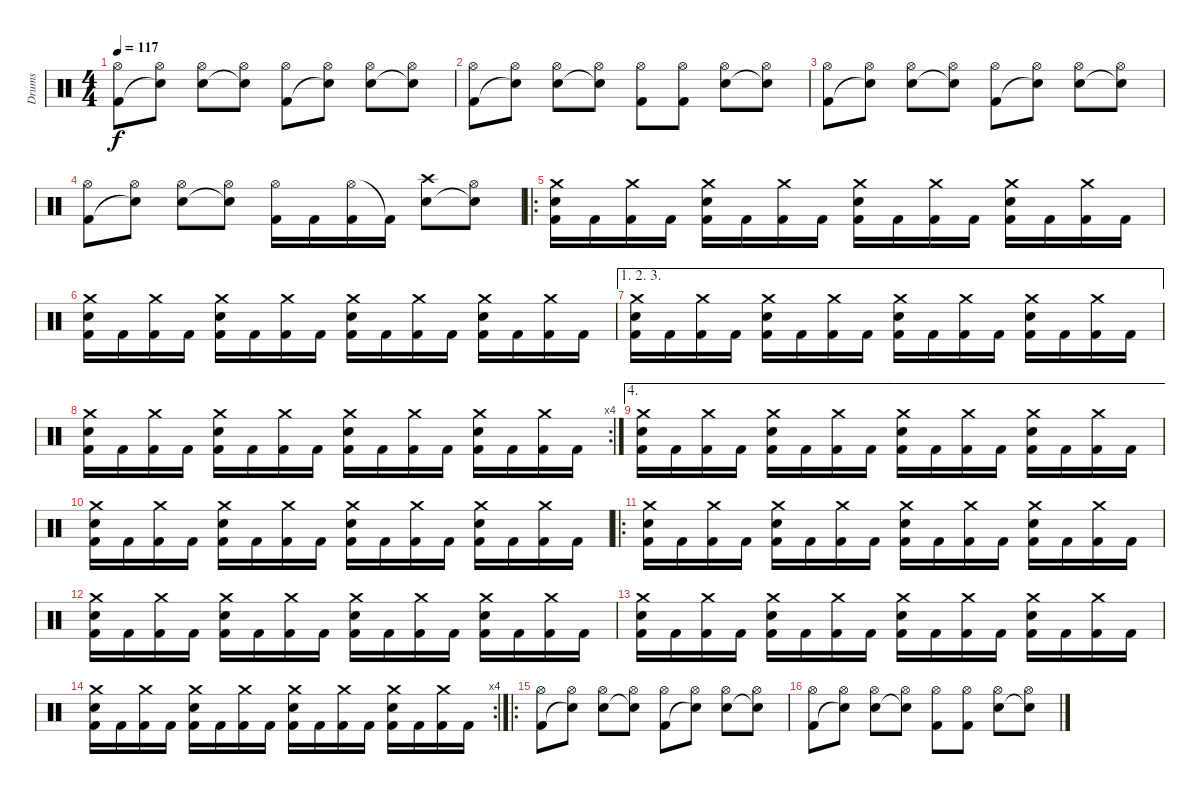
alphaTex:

\track ("Drums" "Drums") {instrument percussion}
\staff {score}
\articulation defaults
\ts (4 4)
\tempo 117
\clef neutral
\ks c
("Hi-Hat (open)" "Kick (hit) 2").8{dy f} ("Hi-Hat (open)" "Snare (hit)"{t}).8 ("Hi-Hat (open)" "Electric Snare (hit)").8 ("Hi-Hat (open)" "Snare (hit)"{t}).8 ("Hi-Hat (open)" "Kick (hit) 2").8 ("Hi-Hat (open)" "Snare (hit)"{t}).8 ("Hi-Hat (open)" "Electric Snare (hit)").8 ("Hi-Hat (open)" "Snare (hit)"{t}).8 |
("Hi-Hat (open)" "Kick (hit) 2").8 ("Hi-Hat (open)" "Snare (hit)"{t}).8 ("Hi-Hat (open)" "Electric Snare (hit)").8 ("Hi-Hat (open)" "Snare (hit)"{t}).8 ("Hi-Hat (open)" "Kick (hit) 2").8 ("Hi-Hat (open)" "Kick (hit) 2").8 ("Hi-Hat (open)" "Electric Snare (hit)").8 ("Hi-Hat (open)" "Snare (hit)"{t}).8 |
("Hi-Hat (open)" "Kick (hit) 2").8 ("Hi-Hat (open)" "Snare (hit)"{t}).8 ("Hi-Hat (open)" "Electric Snare (hit)").8 ("Hi-Hat (open)" "Snare (hit)"{t}).8 ("Hi-Hat (open)" "Kick (hit) 2").8 ("Hi-Hat (open)" "Snare (hit)"{t}).8 ("Hi-Hat (open)" "Electric Snare (hit)").8 ("Hi-Hat (open)" "Snare (hit)"{t}).8 |
("Hi-Hat (open)" "Kick (hit) 2").8 ("Hi-Hat (open)" "Snare (hit)"{t}).8 ("Hi-Hat (open)" "Electric Snare (hit)").8 ("Hi-Hat (open)" "Snare (hit)"{t}).8 ("Hi-Hat (open)" "Kick (hit) 2").16 "Kick (hit) 2".16 ("Hi-Hat (open)" "Kick (hit) 2").16 "Kick (hit) 2"{t}.16 ("Crash high (hit)" "Electric Snare (hit)").8 ("Hi-Hat (open)" "Snare (hit)"{t}).8 |
\ro
("Crash medium (hit)" "Electric Snare (hit)" "Kick (hit) 2").16 "Kick (hit) 2".16 ("Crash medium (hit)" "Kick (hit) 2").16 "Kick (hit) 2".16 ("Crash medium (hit)" "Electric Snare (hit)" "Kick (hit) 2").16 "Kick (hit) 2".16 ("Crash medium (hit)" "Kick (hit) 2").16 "Kick (hit) 2".16 ("Crash medium (hit)" "Electric Snare (hit)" "Kick (hit) 2").16 "Kick (hit) 2".16 ("Crash medium (hit)" "Kick (hit) 2").16 "Kick (hit) 2".16 ("Crash medium (hit)" "Electric Snare (hit)" "Kick (hit) 2").16 "Kick (hit) 2".16 ("Crash medium (hit)" "Kick (hit) 2").16 "Kick (hit) 2".16 |
("Crash medium (hit)" "Electric Snare (hit)" "Kick (hit) 2").16 "Kick (hit) 2".16 ("Crash medium (hit)" "Kick (hit) 2").16 "Kick (hit) 2".16 ("Crash medium (hit)" "Electric Snare (hit)" "Kick (hit) 2").16 "Kick (hit) 2".16 ("Crash medium (hit)" "Kick (hit) 2").16 "Kick (hit) 2".16 ("Crash medium (hit)" "Electric Snare (hit)" "Kick (hit) 2").16 "Kick (hit) 2".16 ("Crash medium (hit)" "Kick (hit) 2").16 "Kick (hit) 2".16 ("Crash medium (hit)" "Electric Snare (hit)" "Kick (hit) 2").16 "Kick (hit) 2".16 ("Crash medium (hit)" "Kick (hit) 2").16 "Kick (hit) 2".16 |
\ae (1 2 3)
("Crash medium (hit)" "Electric Snare (hit)" "Kick (hit) 2").16 "Kick (hit) 2".16 ("Crash medium (hit)" "Kick (hit) 2").16 "Kick (hit) 2".16 ("Crash medium (hit)" "Electric Snare (hit)" "Kick (hit) 2").16 "Kick (hit) 2".16 ("Crash medium (hit)" "Kick (hit) 2").16 "Kick (hit) 2".16 ("Crash medium (hit)" "Electric Snare (hit)" "Kick (hit) 2").16 "Kick (hit) 2".16 ("Crash medium (hit)" "Kick (hit) 2").16 "Kick (hit) 2".16 ("Crash medium (hit)" "Electric Snare (hit)" "Kick (hit) 2").16 "Kick (hit) 2".16 ("Crash medium (hit)" "Kick (hit) 2").16 "Kick (hit) 2".16 |
\rc 4
("Crash medium (hit)" "Electric Snare (hit)" "Kick (hit) 2").16 "Kick (hit) 2".16 ("Crash medium (hit)" "Kick (hit) 2").16 "Kick (hit) 2".16 ("Crash medium (hit)" "Electric Snare (hit)" "Kick (hit) 2").16 "Kick (hit) 2".16 ("Crash medium (hit)" "Kick (hit) 2").16 "Kick (hit) 2".16 ("Crash medium (hit)" "Electric Snare (hit)" "Kick (hit) 2").16 "Kick (hit) 2".16 ("Crash medium (hit)" "Kick (hit) 2").16 "Kick (hit) 2".16 ("Crash medium (hit)" "Electric Snare (hit)" "Kick (hit) 2").16 "Kick (hit) 2".16 ("Crash medium (hit)" "Kick (hit) 2").16 "Kick (hit) 2".16 |
\ae 4
("Crash medium (hit)" "Electric Snare (hit)" "Kick (hit) 2").16 "Kick (hit) 2".16 ("Crash medium (hit)" "Kick (hit) 2").16 "Kick (hit) 2".16 ("Crash medium (hit)" "Electric Snare (hit)" "Kick (hit) 2").16 "Kick (hit) 2".16 ("Crash medium (hit)" "Kick (hit) 2").16 "Kick (hit) 2".16 ("Crash medium (hit)" "Electric Snare (hit)" "Kick (hit) 2").16 "Kick (hit) 2".16 ("Crash medium (hit)" "Kick (hit) 2").16 "Kick (hit) 2".16 ("Crash medium (hit)" "Electric Snare (hit)" "Kick (hit) 2").16 "Kick (hit) 2".16 ("Crash medium (hit)" "Kick (hit) 2").16 "Kick (hit) 2".16 |
("Crash medium (hit)" "Electric Snare (hit)" "Kick (hit) 2").16 "Kick (hit) 2".16 ("Crash medium (hit)" "Kick (hit) 2").16 "Kick (hit) 2".16 ("Crash medium (hit)" "Electric Snare (hit)" "Kick (hit) 2").16 "Kick (hit) 2".16 ("Crash medium (hit)" "Kick (hit) 2").16 "Kick (hit) 2".16 ("Crash medium (hit)" "Electric Snare (hit)" "Kick (hit) 2").16 "Kick (hit) 2".16 ("Crash medium (hit)" "Kick (hit) 2").16 "Kick (hit) 2".16 ("Crash medium (hit)" "Electric Snare (hit)" "Kick (hit) 2").16 "Kick (hit) 2".16 ("Crash medium (hit)" "Kick (hit) 2").16 "Kick (hit) 2".16 |
\ro
("Crash medium (hit)" "Electric Snare (hit)" "Kick (hit) 2").16 "Kick (hit) 2".16 ("Crash medium (hit)" "Kick (hit) 2").16 "Kick (hit) 2".16 ("Crash medium (hit)" "Electric Snare (hit)" "Kick (hit) 2").16 "Kick (hit) 2".16 ("Crash medium (hit)" "Kick (hit) 2").16 "Kick (hit) 2".16 ("Crash medium (hit)" "Electric Snare (hit)" "Kick (hit) 2").16 "Kick (hit) 2".16 ("Crash medium (hit)" "Kick (hit) 2").16 "Kick (hit) 2".16 ("Crash medium (hit)" "Electric Snare (hit)" "Kick (hit) 2").16 "Kick (hit) 2".16 ("Crash medium (hit)" "Kick (hit) 2").16 "Kick (hit) 2".16 |
("Crash medium (hit)" "Electric Snare (hit)" "Kick (hit) 2").16 "Kick (hit) 2".16 ("Crash medium (hit)" "Kick (hit) 2").16 "Kick (hit) 2".16 ("Crash medium (hit)" "Electric Snare (hit)" "Kick (hit) 2").16 "Kick (hit) 2".16 ("Crash medium (hit)" "Kick (hit) 2").16 "Kick (hit) 2".16 ("Crash medium (hit)" "Electric Snare (hit)" "Kick (hit) 2").16 "Kick (hit) 2".16 ("Crash medium (hit)" "Kick (hit) 2").16 "Kick (hit) 2".16 ("Crash medium (hit)" "Electric Snare (hit)" "Kick (hit) 2").16 "Kick (hit) 2".16 ("Crash medium (hit)" "Kick (hit) 2").16 "Kick (hit) 2".16 |
("Crash medium (hit)" "Electric Snare (hit)" "Kick (hit) 2").16 "Kick (hit) 2".16 ("Crash medium (hit)" "Kick (hit) 2").16 "Kick (hit) 2".16 ("Crash medium (hit)" "Electric Snare (hit)" "Kick (hit) 2").16 "Kick (hit) 2".16 ("Crash medium (hit)" "Kick (hit) 2").16 "Kick (hit) 2".16 ("Crash medium (hit)" "Electric Snare (hit)" "Kick (hit) 2").16 "Kick (hit) 2".16 ("Crash medium (hit)" "Kick (hit) 2").16 "Kick (hit) 2".16 ("Crash medium (hit)" "Electric Snare (hit)" "Kick (hit) 2").16 "Kick (hit) 2".16 ("Crash medium (hit)" "Kick (hit) 2").16 "Kick (hit) 2".16 |
\rc 4
("Crash medium (hit)" "Electric Snare (hit)" "Kick (hit) 2").16 "Kick (hit) 2".16 ("Crash medium (hit)" "Kick (hit) 2").16 "Kick (hit) 2".16 ("Crash medium (hit)" "Electric Snare (hit)" "Kick (hit) 2").16 "Kick (hit) 2".16 ("Crash medium (hit)" "Kick (hit) 2").16 "Kick (hit) 2".16 ("Crash medium (hit)" "Electric Snare (hit)" "Kick (hit) 2").16 "Kick (hit) 2".16 ("Crash medium (hit)" "Kick (hit) 2").16 "Kick (hit) 2".16 ("Crash medium (hit)" "Electric Snare (hit)" "Kick (hit) 2").16 "Kick (hit) 2".16 ("Crash medium (hit)" "Kick (hit) 2").16 "Kick (hit) 2".16 |
\ro
("Hi-Hat (open)" "Kick (hit) 2").8 ("Hi-Hat (open)" "Snare (hit)"{t}).8 ("Hi-Hat (open)" "Electric Snare (hit)").8 ("Hi-Hat (open)" "Snare (hit)"{t}).8 ("Hi-Hat (open)" "Kick (hit) 2").8 ("Hi-Hat (open)" "Snare (hit)"{t}).8 ("Hi-Hat (open)" "Electric Snare (hit)").8 ("Hi-Hat (open)" "Snare (hit)"{t}).8 |
("Hi-Hat (open)" "Kick (hit) 2").8 ("Hi-Hat (open)" "Snare (hit)"{t}).8 ("Hi-Hat (open)" "Electric Snare (hit)").8 ("Hi-Hat (open)" "Snare (hit)"{t}).8 ("Hi-Hat (open)" "Kick (hit) 2").8 ("Hi-Hat (open)" "Kick (hit) 2").8 ("Hi-Hat (open)" "Electric Snare (hit)").8 ("Hi-Hat (open)" "Snare (hit)"{t}).8
